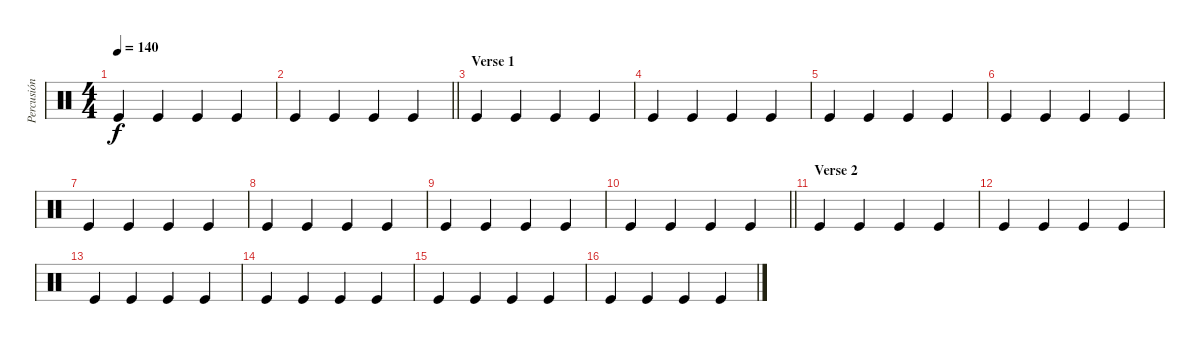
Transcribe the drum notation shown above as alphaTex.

\track ("Percusión" "Percusión") {instrument percussion}
\staff {score}
\articulation defaults
\ts (4 4)
\tempo 140
\clef neutral
\ks c "Kick (hit)".4{dy f} "Kick (hit)".4 "Kick (hit)".4 "Kick (hit)".4
|
\barLineRight lightlight "Kick (hit)".4 "Kick (hit)".4 "Kick (hit)".4 "Kick (hit)".4
|
\section ("" "Verse 1")
"Kick (hit)".4 "Kick (hit)".4 "Kick (hit)".4 "Kick (hit)".4 |
"Kick (hit)".4 "Kick (hit)".4 "Kick (hit)".4 "Kick (hit)".4 |
"Kick (hit)".4 "Kick (hit)".4 "Kick (hit)".4 "Kick (hit)".4 |
"Kick (hit)".4 "Kick (hit)".4 "Kick (hit)".4 "Kick (hit)".4 |
"Kick (hit)".4 "Kick (hit)".4 "Kick (hit)".4 "Kick (hit)".4 |
"Kick (hit)".4 "Kick (hit)".4 "Kick (hit)".4 "Kick (hit)".4 |
"Kick (hit)".4 "Kick (hit)".4 "Kick (hit)".4 "Kick (hit)".4 |
\barLineRight lightlight "Kick (hit)".4 "Kick (hit)".4 "Kick (hit)".4 "Kick (hit)".4
|
\section ("" "Verse 2")
"Kick (hit)".4 "Kick (hit)".4 "Kick (hit)".4 "Kick (hit)".4 |
"Kick (hit)".4 "Kick (hit)".4 "Kick (hit)".4 "Kick (hit)".4 |
"Kick (hit)".4 "Kick (hit)".4 "Kick (hit)".4 "Kick (hit)".4 |
"Kick (hit)".4 "Kick (hit)".4 "Kick (hit)".4 "Kick (hit)".4 |
"Kick (hit)".4 "Kick (hit)".4 "Kick (hit)".4 "Kick (hit)".4 |
"Kick (hit)".4 "Kick (hit)".4 "Kick (hit)".4 "Kick (hit)".4
